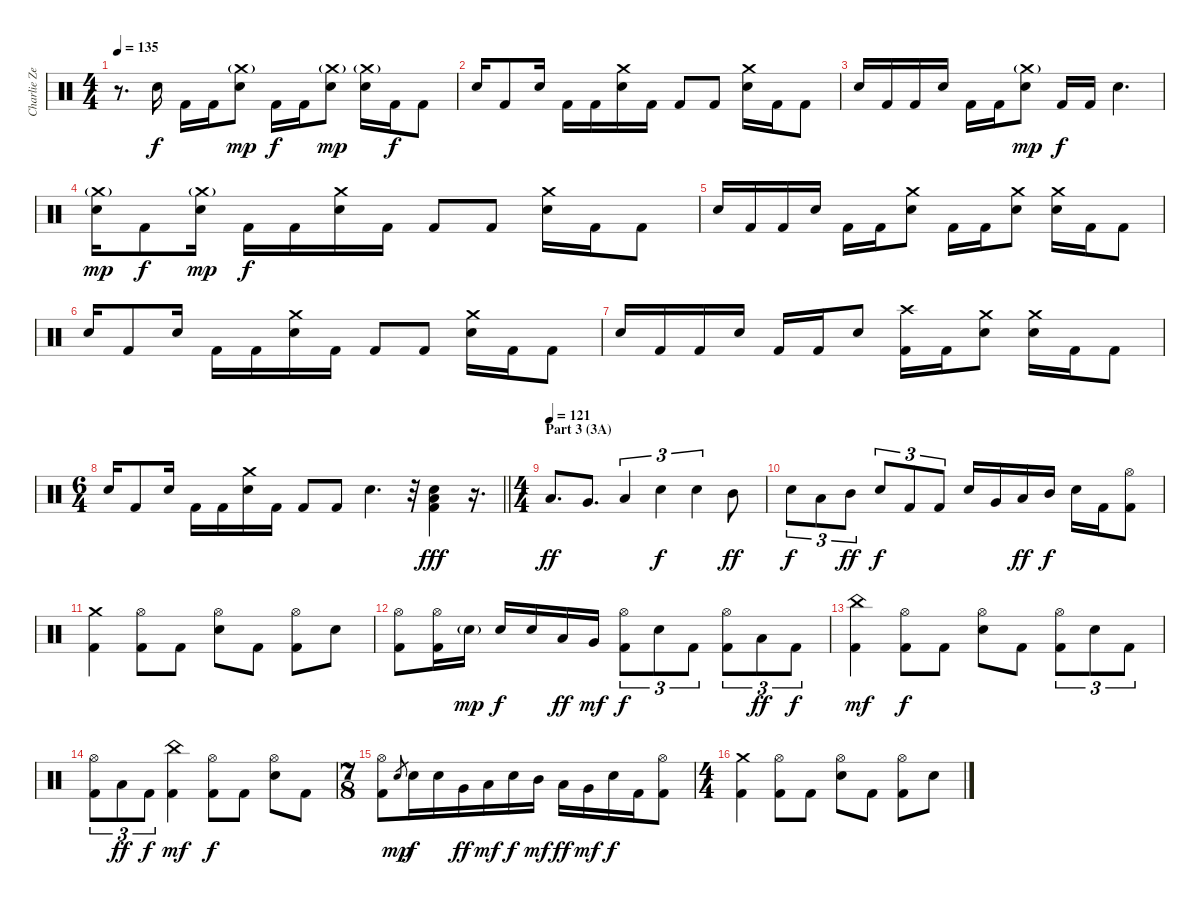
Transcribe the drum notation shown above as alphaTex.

\track ("Charlie Zeleny - Drums" "Charlie Ze") {instrument percussion}
\staff {score}
\articulation defaults
\ts (4 4)
\tempo 135
\clef neutral
\ks c
r.8{d dy f} "Electric Snare (hit)".16 "Kick (hit) 2".16 "Kick (hit) 2".16 ("Crash medium (hit)"{g} "Electric Snare (hit)").8{dy mp} "Kick (hit) 2".16{dy f} "Kick (hit) 2".16 ("Crash medium (hit)"{g} "Electric Snare (hit)").8{dy mp} ("Crash medium (hit)"{g} "Electric Snare (hit)").16 "Kick (hit) 2".16{dy f} "Kick (hit) 2".8 |
"Electric Snare (hit)".16 "Kick (hit) 2".8 "Electric Snare (hit)".16 "Kick (hit) 2".16 "Kick (hit) 2".16 ("Crash medium (hit)" "Electric Snare (hit)").16 "Kick (hit) 2".16 "Kick (hit) 2".8 "Kick (hit) 2".8 ("Crash medium (hit)" "Electric Snare (hit)").16 "Kick (hit) 2".16 "Kick (hit) 2".8 |
"Electric Snare (hit)".16 "Kick (hit) 2".16 "Kick (hit) 2".16 "Electric Snare (hit)".16 "Kick (hit) 2".16 "Kick (hit) 2".16 ("Crash medium (hit)"{g} "Electric Snare (hit)").8{dy mp} "Kick (hit) 2".16{dy f} "Kick (hit) 2".16 "Electric Snare (hit)".4{d} |
("Crash medium (hit)"{g} "Electric Snare (hit)").16{dy mp} "Kick (hit) 2".8{dy f} ("Crash medium (hit)"{g} "Electric Snare (hit)").16{dy mp} "Kick (hit) 2".16{dy f} "Kick (hit) 2".16 ("Crash medium (hit)" "Electric Snare (hit)").16 "Kick (hit) 2".16 "Kick (hit) 2".8 "Kick (hit) 2".8 ("Crash medium (hit)" "Electric Snare (hit)").16 "Kick (hit) 2".16 "Kick (hit) 2".8 |
"Electric Snare (hit)".16 "Kick (hit) 2".16 "Kick (hit) 2".16 "Electric Snare (hit)".16 "Kick (hit) 2".16 "Kick (hit) 2".16 ("Crash medium (hit)" "Electric Snare (hit)").8 "Kick (hit) 2".16 "Kick (hit) 2".16 ("Crash medium (hit)" "Electric Snare (hit)").8 ("Crash medium (hit)" "Electric Snare (hit)").16 "Kick (hit) 2".16 "Kick (hit) 2".8 |
"Electric Snare (hit)".16 "Kick (hit) 2".8 "Electric Snare (hit)".16 "Kick (hit) 2".16 "Kick (hit) 2".16 ("Crash medium (hit)" "Electric Snare (hit)").16 "Kick (hit) 2".16 "Kick (hit) 2".8 "Kick (hit) 2".8 ("Crash medium (hit)" "Electric Snare (hit)").16 "Kick (hit) 2".16 "Kick (hit) 2".8 |
"Electric Snare (hit)".16 "Kick (hit) 2".16 "Kick (hit) 2".16 "Electric Snare (hit)".16 "Kick (hit) 2".16 "Kick (hit) 2".16 "Electric Snare (hit)".8 ("Crash high (hit)" "Kick (hit) 2").16 "Kick (hit) 2".16 ("Crash medium (hit)" "Electric Snare (hit)").8 ("Crash medium (hit)" "Electric Snare (hit)").16 "Kick (hit) 2".16 "Kick (hit) 2".8 |
\ts (6 4)
\barLineRight lightlight "Electric Snare (hit)".16 "Kick (hit) 2".8 "Electric Snare (hit)".16 "Kick (hit) 2".16 "Kick (hit) 2".16
("Crash medium (hit)" "Electric Snare (hit)").16 "Kick (hit) 2".16 "Kick (hit) 2".8 "Kick (hit) 2".8 "Electric Snare (hit)".4{d} r.32 ("Electric Snare (hit)" "Low Floor Tom (hit)" "Kick (hit) 2").4{dy fff} r.16{d} |
\ts (4 4)
\section ("" "Part 3 (3A)")
\tempo (121)
"Low Floor Tom (hit)".8{d dy ff} "Very Low Tom (hit)".8{d} "Low Tom (hit)".4{tu (3 2)} "Electric Snare (hit)".4{tu (3 2) dy f} "Electric Snare (hit)".4{tu (3 2)} "Mid Tom (hit)".8{dy ff} |
"Electric Snare (hit)".8{tu (3 2) dy f} "Low Tom (hit)".8{tu (3 2)} "Mid Tom (hit)".8{tu (3 2) dy ff} "Electric Snare (hit)".8{tu (3 2) dy f} "Kick (hit) 2".8{tu (3 2)} "Kick (hit) 2".8{tu (3 2)} "Electric Snare (hit)".16 "Very Low Tom (hit)".16 "Low Tom (hit)".16{dy ff} "Mid Tom (hit)".16{dy f} "Electric Snare (hit)".16 "Kick (hit) 2".16 ("Hi-Hat (open)" "Kick (hit) 2").8 |
("Crash medium (hit)" "Kick (hit) 2").4 ("Hi-Hat (open)" "Kick (hit) 2").8 "Kick (hit) 2".8 ("Hi-Hat (open)" "Electric Snare (hit)").8 "Kick (hit) 2".8 ("Hi-Hat (open)" "Kick (hit) 2").8 "Electric Snare (hit)".8 |
("Hi-Hat (open)" "Kick (hit) 2").8 ("Hi-Hat (open)" "Kick (hit) 2").16 "Electric Snare (hit)"{g}.16{dy mp} "Electric Snare (hit)".16{dy f} "Electric Snare (hit)".16 "Low Tom (hit)".16{dy ff} "Very Low Tom (hit)".16{dy mf} ("Hi-Hat (open)" "Kick (hit) 2").8{tu (3 2) dy f} "Electric Snare (hit)".8{tu (3 2)} "Kick (hit) 2".8{tu (3 2)} ("Hi-Hat (open)" "Kick (hit) 2").8{tu (3 2)} "Low Tom (hit)".8{tu (3 2) dy ff} "Kick (hit) 2".8{tu (3 2) dy f} |
("China (hit)" "Kick (hit) 2").4{dy mf} ("Hi-Hat (open)" "Kick (hit) 2").8{dy f} "Kick (hit) 2".8 ("Hi-Hat (open)" "Electric Snare (hit)").8 "Kick (hit) 2".8 ("Hi-Hat (open)" "Kick (hit) 2").8{tu (3 2)} "Electric Snare (hit)".8{tu (3 2)} "Kick (hit) 2".8{tu (3 2)} |
("Hi-Hat (open)" "Kick (hit) 2").8{tu (3 2)} "Low Tom (hit)".8{tu (3 2) dy ff} "Kick (hit) 2".8{tu (3 2) dy f} ("China (hit)" "Kick (hit) 2").4{dy mf} ("Hi-Hat (open)" "Kick (hit) 2").8{dy f} "Kick (hit) 2".8 ("Hi-Hat (open)" "Electric Snare (hit)").8 "Kick (hit) 2".8 |
\ts (7 8)
("Hi-Hat (open)" "Kick (hit) 2").8 "Electric Snare (hit)".8{gr dy mp} "Electric Snare (hit)".16{dy f} "Electric Snare (hit)".16 "Very Low Tom (hit)".16{dy ff} "Low Floor Tom (hit)".16{dy mf} "Electric Snare (hit)".16{dy f} "Mid Tom (hit)".16{dy mf} "Low Tom (hit)".16{dy ff} "Very Low Tom (hit)".16{dy mf} "Electric Snare (hit)".16{dy f} "Kick (hit) 2".16 ("Hi-Hat (open)" "Kick (hit) 2").8 |
\ts (4 4)
("Crash medium (hit)" "Kick (hit) 2").4 ("Hi-Hat (open)" "Kick (hit) 2").8 "Kick (hit) 2".8 ("Hi-Hat (open)" "Electric Snare (hit)").8 "Kick (hit) 2".8 ("Hi-Hat (open)" "Kick (hit) 2").8 "Electric Snare (hit)".8
